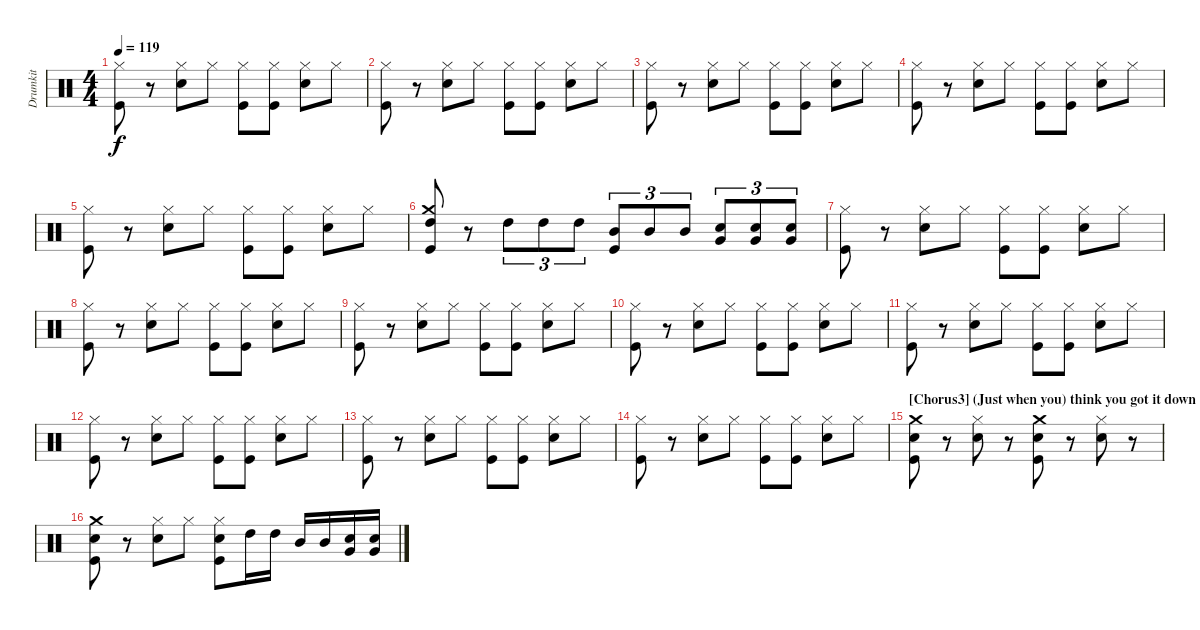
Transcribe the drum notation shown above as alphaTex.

\track ("Drumkit" "Drumkit") {instrument percussion}
\staff {score}
\articulation defaults
\ts (4 4)
\tempo 119
\clef neutral
\ks c
("Hi-Hat (closed)" "Kick (hit)").8{dy f} r.8 ("Hi-Hat (closed)" "Snare (hit) 2").8 "Hi-Hat (closed)".8 ("Hi-Hat (closed)" "Kick (hit)").8 ("Hi-Hat (closed)" "Kick (hit)").8 ("Hi-Hat (closed)" "Snare (hit) 2").8 "Hi-Hat (closed)".8 |
("Hi-Hat (closed)" "Kick (hit)").8 r.8 ("Hi-Hat (closed)" "Snare (hit) 2").8 "Hi-Hat (closed)".8 ("Hi-Hat (closed)" "Kick (hit)").8 ("Hi-Hat (closed)" "Kick (hit)").8 ("Hi-Hat (closed)" "Snare (hit) 2").8 "Hi-Hat (closed)".8 |
("Hi-Hat (closed)" "Kick (hit)").8 r.8 ("Hi-Hat (closed)" "Snare (hit) 2").8 "Hi-Hat (closed)".8 ("Hi-Hat (closed)" "Kick (hit)").8 ("Hi-Hat (closed)" "Kick (hit)").8 ("Hi-Hat (closed)" "Snare (hit) 2").8 "Hi-Hat (closed)".8 |
("Hi-Hat (closed)" "Kick (hit)").8 r.8 ("Hi-Hat (closed)" "Snare (hit) 2").8 "Hi-Hat (closed)".8 ("Hi-Hat (closed)" "Kick (hit)").8 ("Hi-Hat (closed)" "Kick (hit)").8 ("Hi-Hat (closed)" "Snare (hit) 2").8 "Hi-Hat (closed)".8 |
("Hi-Hat (closed)" "Kick (hit)").8 r.8 ("Hi-Hat (closed)" "Snare (hit) 2").8 "Hi-Hat (closed)".8 ("Hi-Hat (closed)" "Kick (hit)").8 ("Hi-Hat (closed)" "Kick (hit)").8 ("Hi-Hat (closed)" "Snare (hit) 2").8 "Hi-Hat (closed)".8 |
("Crash medium (hit)" "High Tom (hit)" "Kick (hit)").8 r.8 "High Tom (hit)".8{tu (3 2)} "High Tom (hit)".8{tu (3 2)} "High Tom (hit)".8{tu (3 2)} ("Mid Tom (hit)" "Kick (hit)").8{tu (3 2)} "Mid Tom (hit)".8{tu (3 2)} "Mid Tom (hit)".8{tu (3 2)} ("Snare (hit) 2" "Very Low Tom (hit)").8{tu (3 2)} ("Snare (hit) 2" "Very Low Tom (hit)").8{tu (3 2)} ("Snare (hit) 2" "Very Low Tom (hit)").8{tu (3 2)} |
("Hi-Hat (closed)" "Kick (hit)").8 r.8 ("Hi-Hat (closed)" "Snare (hit) 2").8 "Hi-Hat (closed)".8 ("Hi-Hat (closed)" "Kick (hit)").8 ("Hi-Hat (closed)" "Kick (hit)").8 ("Hi-Hat (closed)" "Snare (hit) 2").8 "Hi-Hat (closed)".8 |
("Hi-Hat (closed)" "Kick (hit)").8 r.8 ("Hi-Hat (closed)" "Snare (hit) 2").8 "Hi-Hat (closed)".8 ("Hi-Hat (closed)" "Kick (hit)").8 ("Hi-Hat (closed)" "Kick (hit)").8 ("Hi-Hat (closed)" "Snare (hit) 2").8 "Hi-Hat (closed)".8 |
("Hi-Hat (closed)" "Kick (hit)").8 r.8 ("Hi-Hat (closed)" "Snare (hit) 2").8 "Hi-Hat (closed)".8 ("Hi-Hat (closed)" "Kick (hit)").8 ("Hi-Hat (closed)" "Kick (hit)").8 ("Hi-Hat (closed)" "Snare (hit) 2").8 "Hi-Hat (closed)".8 |
("Hi-Hat (closed)" "Kick (hit)").8 r.8 ("Hi-Hat (closed)" "Snare (hit) 2").8 "Hi-Hat (closed)".8 ("Hi-Hat (closed)" "Kick (hit)").8 ("Hi-Hat (closed)" "Kick (hit)").8 ("Hi-Hat (closed)" "Snare (hit) 2").8 "Hi-Hat (closed)".8 |
("Hi-Hat (closed)" "Kick (hit)").8 r.8 ("Hi-Hat (closed)" "Snare (hit) 2").8 "Hi-Hat (closed)".8 ("Hi-Hat (closed)" "Kick (hit)").8 ("Hi-Hat (closed)" "Kick (hit)").8 ("Hi-Hat (closed)" "Snare (hit) 2").8 "Hi-Hat (closed)".8 |
("Hi-Hat (closed)" "Kick (hit)").8 r.8 ("Hi-Hat (closed)" "Snare (hit) 2").8 "Hi-Hat (closed)".8 ("Hi-Hat (closed)" "Kick (hit)").8 ("Hi-Hat (closed)" "Kick (hit)").8 ("Hi-Hat (closed)" "Snare (hit) 2").8 "Hi-Hat (closed)".8 |
("Hi-Hat (closed)" "Kick (hit)").8 r.8 ("Hi-Hat (closed)" "Snare (hit) 2").8 "Hi-Hat (closed)".8 ("Hi-Hat (closed)" "Kick (hit)").8 ("Hi-Hat (closed)" "Kick (hit)").8 ("Hi-Hat (closed)" "Snare (hit) 2").8 "Hi-Hat (closed)".8 |
("Hi-Hat (closed)" "Kick (hit)").8 r.8 ("Hi-Hat (closed)" "Snare (hit) 2").8 "Hi-Hat (closed)".8 ("Hi-Hat (closed)" "Kick (hit)").8 ("Hi-Hat (closed)" "Kick (hit)").8 ("Hi-Hat (closed)" "Snare (hit) 2").8 "Hi-Hat (closed)".8 |
\section ("" "[Chorus3] (Just when you) think you got it down")
("Crash medium (hit)" "Snare (hit) 2" "Kick (hit)").8 r.8 ("Hi-Hat (closed)" "Snare (hit) 2").8 r.8 ("Crash medium (hit)" "Snare (hit) 2" "Kick (hit)").8 r.8 ("Hi-Hat (closed)" "Snare (hit) 2").8 r.8 |
("Crash medium (hit)" "Snare (hit) 2" "Kick (hit)").8 r.8 ("Hi-Hat (closed)" "Snare (hit) 2").8 "Hi-Hat (closed)".8 ("Hi-Hat (closed)" "Snare (hit) 2" "Kick (hit)").8 "High Tom (hit)".16 "High Tom (hit)".16 "Mid Tom (hit)".16 "Mid Tom (hit)".16 ("Snare (hit) 2" "Very Low Tom (hit)").16 ("Snare (hit) 2" "Very Low Tom (hit)").16
